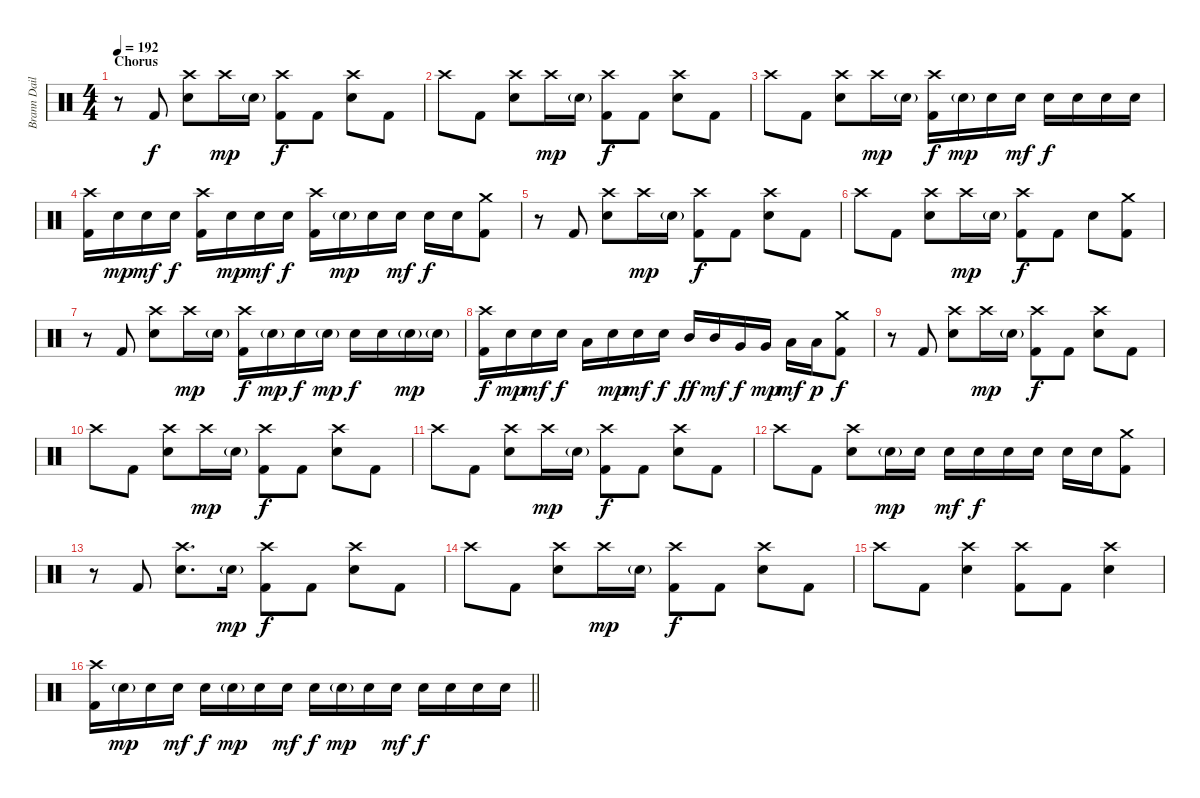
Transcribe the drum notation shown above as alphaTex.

\track ("Brann Dailor - Drums" "Brann Dail") {instrument percussion}
\staff {score}
\articulation defaults
\ts (4 4)
\section ("" "Chorus")
\tempo 192
\clef neutral
\ks c
r.8{dy f} "Kick (hit) 2".8 ("Crash high (hit)" "Electric Snare (hit)").8 "Crash high (hit)".16{dy mp} "Electric Snare (hit)"{g}.16 ("Crash high (hit)" "Kick (hit) 2").8{dy f} "Kick (hit) 2".8 ("Crash high (hit)" "Electric Snare (hit)").8 "Kick (hit) 2".8 |
"Crash high (hit)".8 "Kick (hit) 2".8 ("Crash high (hit)" "Electric Snare (hit)").8 "Crash high (hit)".16{dy mp} "Electric Snare (hit)"{g}.16 ("Crash high (hit)" "Kick (hit) 2").8{dy f} "Kick (hit) 2".8 ("Crash high (hit)" "Electric Snare (hit)").8 "Kick (hit) 2".8 |
"Crash high (hit)".8 "Kick (hit) 2".8 ("Crash high (hit)" "Electric Snare (hit)").8 "Crash high (hit)".16{dy mp} "Electric Snare (hit)"{g}.16 ("Crash high (hit)" "Kick (hit) 2").16{dy f} "Electric Snare (hit)"{g}.16{dy mp} "Electric Snare (hit)".16 "Electric Snare (hit)".16{dy mf} "Electric Snare (hit)".16{dy f} "Electric Snare (hit)".16 "Electric Snare (hit)".16 "Electric Snare (hit)".16 |
("Crash high (hit)" "Kick (hit) 2").16 "Electric Snare (hit)".16{dy mp} "Electric Snare (hit)".16{dy mf} "Electric Snare (hit)".16{dy f} ("Crash high (hit)" "Kick (hit) 2").16 "Electric Snare (hit)".16{dy mp} "Electric Snare (hit)".16{dy mf} "Electric Snare (hit)".16{dy f} ("Crash high (hit)" "Kick (hit) 2").16 "Electric Snare (hit)"{g}.16{dy mp} "Electric Snare (hit)".16 "Electric Snare (hit)".16{dy mf} "Electric Snare (hit)".16{dy f} "Electric Snare (hit)".16 ("Crash medium (hit)" "Kick (hit) 2").8 |
r.8 "Kick (hit) 2".8 ("Crash high (hit)" "Electric Snare (hit)").8 "Crash high (hit)".16{dy mp} "Electric Snare (hit)"{g}.16 ("Crash high (hit)" "Kick (hit) 2").8{dy f} "Kick (hit) 2".8 ("Crash high (hit)" "Electric Snare (hit)").8 "Kick (hit) 2".8 |
"Crash high (hit)".8 "Kick (hit) 2".8 ("Crash high (hit)" "Electric Snare (hit)").8 "Crash high (hit)".16{dy mp} "Electric Snare (hit)"{g}.16 ("Crash high (hit)" "Kick (hit) 2").8{dy f} "Kick (hit) 2".8 "Electric Snare (hit)".8 ("Crash medium (hit)" "Kick (hit) 2").8 |
r.8 "Kick (hit) 2".8 ("Crash high (hit)" "Electric Snare (hit)").8 "Crash high (hit)".16{dy mp} "Electric Snare (hit)"{g}.16 ("Crash high (hit)" "Kick (hit) 2").16{dy f} "Electric Snare (hit)"{g}.16{dy mp} "Electric Snare (hit)".16{dy f} "Electric Snare (hit)"{g}.16{dy mp} "Electric Snare (hit)".16{dy f} "Electric Snare (hit)".16 "Electric Snare (hit)"{g}.16{dy mp} "Electric Snare (hit)"{g}.16 |
("Crash high (hit)" "Kick (hit) 2").16{dy f} "Electric Snare (hit)".16{dy mp} "Electric Snare (hit)".16{dy mf} "Electric Snare (hit)".16{dy f} "Low Tom (hit)".16 "Electric Snare (hit)".16{dy mp} "Electric Snare (hit)".16{dy mf} "Electric Snare (hit)".16{dy f} "Mid Tom (hit)".16{dy ff} "Mid Tom (hit)".16{dy mf} "Very Low Tom (hit)".16{dy f} "Very Low Tom (hit)".16{dy mp} "Low Floor Tom (hit)".16{dy mf} "Low Floor Tom (hit)".16{dy p} ("Crash medium (hit)" "Kick (hit) 2").8{dy f} |
r.8 "Kick (hit) 2".8 ("Crash high (hit)" "Electric Snare (hit)").8 "Crash high (hit)".16{dy mp} "Electric Snare (hit)"{g}.16 ("Crash high (hit)" "Kick (hit) 2").8{dy f} "Kick (hit) 2".8 ("Crash high (hit)" "Electric Snare (hit)").8 "Kick (hit) 2".8 |
"Crash high (hit)".8 "Kick (hit) 2".8 ("Crash high (hit)" "Electric Snare (hit)").8 "Crash high (hit)".16{dy mp} "Electric Snare (hit)"{g}.16 ("Crash high (hit)" "Kick (hit) 2").8{dy f} "Kick (hit) 2".8 ("Crash high (hit)" "Electric Snare (hit)").8 "Kick (hit) 2".8 |
"Crash high (hit)".8 "Kick (hit) 2".8 ("Crash high (hit)" "Electric Snare (hit)").8 "Crash high (hit)".16{dy mp} "Electric Snare (hit)"{g}.16 ("Crash high (hit)" "Kick (hit) 2").8{dy f} "Kick (hit) 2".8 ("Crash high (hit)" "Electric Snare (hit)").8 "Kick (hit) 2".8 |
"Crash high (hit)".8 "Kick (hit) 2".8 ("Crash high (hit)" "Electric Snare (hit)").8 "Electric Snare (hit)"{g}.16{dy mp} "Electric Snare (hit)".16 "Electric Snare (hit)".16{dy mf} "Electric Snare (hit)".16{dy f} "Electric Snare (hit)".16 "Electric Snare (hit)".16 "Electric Snare (hit)".16 "Electric Snare (hit)".16 ("Crash medium (hit)" "Kick (hit) 2").8 |
r.8 "Kick (hit) 2".8 ("Crash high (hit)" "Electric Snare (hit)").8{d} "Electric Snare (hit)"{g}.16{dy mp} ("Crash high (hit)" "Kick (hit) 2").8{dy f} "Kick (hit) 2".8 ("Crash high (hit)" "Electric Snare (hit)").8 "Kick (hit) 2".8 |
"Crash high (hit)".8 "Kick (hit) 2".8 ("Crash high (hit)" "Electric Snare (hit)").8 "Crash high (hit)".16{dy mp} "Electric Snare (hit)"{g}.16 ("Crash high (hit)" "Kick (hit) 2").8{dy f} "Kick (hit) 2".8 ("Crash high (hit)" "Electric Snare (hit)").8 "Kick (hit) 2".8 |
"Crash high (hit)".8 "Kick (hit) 2".8 ("Crash high (hit)" "Electric Snare (hit)").4 ("Crash high (hit)" "Kick (hit) 2").8 "Kick (hit) 2".8 ("Crash high (hit)" "Electric Snare (hit)").4 |
\barLineRight lightlight
("Crash high (hit)" "Kick (hit) 2").16 "Electric Snare (hit)"{g}.16{dy mp} "Electric Snare (hit)".16 "Electric Snare (hit)".16{dy mf} "Electric Snare (hit)".16{dy f} "Electric Snare (hit)"{g}.16{dy mp} "Electric Snare (hit)".16 "Electric Snare (hit)".16{dy mf} "Electric Snare (hit)".16{dy f} "Electric Snare (hit)"{g}.16{dy mp} "Electric Snare (hit)".16 "Electric Snare (hit)".16{dy mf} "Electric Snare (hit)".16{dy f} "Electric Snare (hit)".16 "Electric Snare (hit)".16 "Electric Snare (hit)".16
